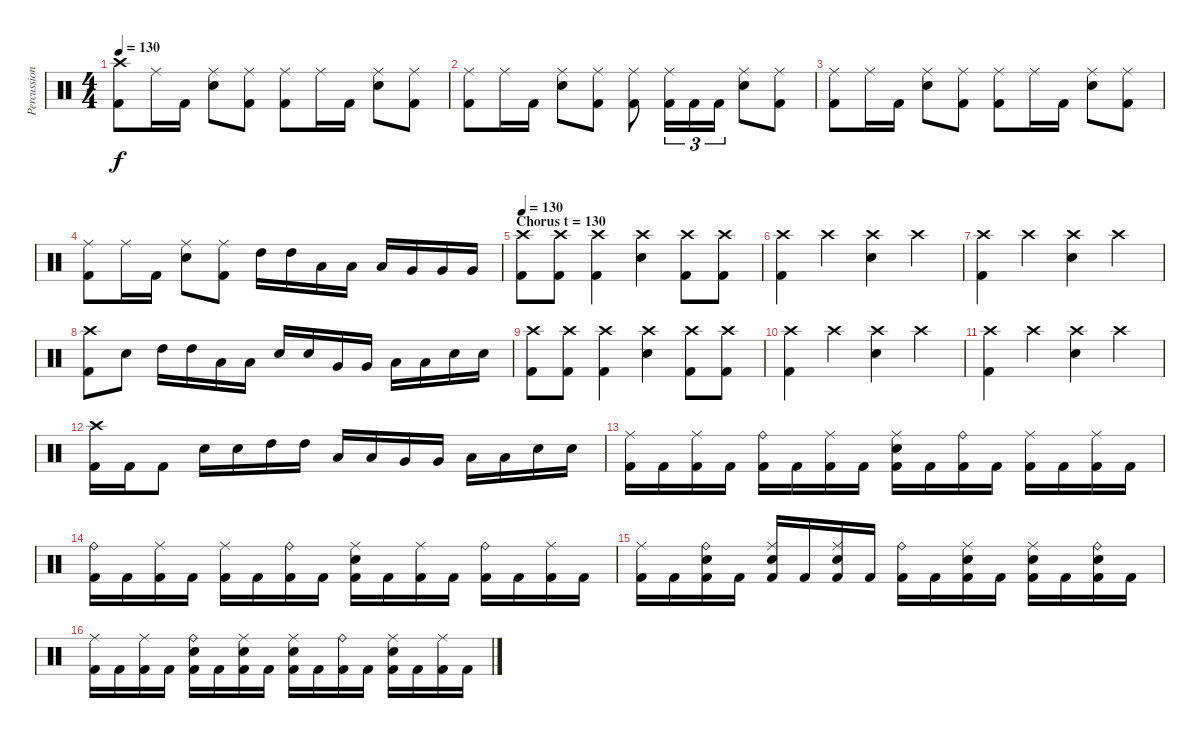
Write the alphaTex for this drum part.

\track ("Percussion" "Percussion") {instrument percussion}
\staff {score}
\articulation defaults
\ts (4 4)
\tempo 130
\clef neutral
\ks c
("Crash high (hit)" "Kick (hit) 2").8{dy f} "Ride (middle)".16 "Kick (hit) 2".16 ("Ride (middle)" "Electric Snare (hit)").8 ("Ride (middle)" "Kick (hit) 2").8 ("Ride (middle)" "Kick (hit) 2").8 "Ride (middle)".16 "Kick (hit) 2".16 ("Ride (middle)" "Electric Snare (hit)").8 ("Ride (middle)" "Kick (hit) 2").8 |
("Ride (middle)" "Kick (hit) 2").8 "Ride (middle)".16 "Kick (hit) 2".16 ("Ride (middle)" "Electric Snare (hit)").8 ("Ride (middle)" "Kick (hit) 2").8 ("Ride (middle)" "Kick (hit) 2").8 ("Ride (middle)" "Kick (hit) 2").16{tu (3 2)} "Kick (hit) 2".16{tu (3 2)} "Kick (hit) 2".16{tu (3 2)} ("Ride (middle)" "Electric Snare (hit)").8 ("Ride (middle)" "Kick (hit) 2").8 |
("Ride (middle)" "Kick (hit) 2").8 "Ride (middle)".16 "Kick (hit) 2".16 ("Ride (middle)" "Electric Snare (hit)").8 ("Ride (middle)" "Kick (hit) 2").8 ("Ride (middle)" "Kick (hit) 2").8 "Ride (middle)".16 "Kick (hit) 2".16 ("Ride (middle)" "Electric Snare (hit)").8 ("Ride (middle)" "Kick (hit) 2").8 |
("Ride (middle)" "Kick (hit) 2").8 "Ride (middle)".16 "Kick (hit) 2".16 ("Ride (middle)" "Electric Snare (hit)").8 ("Ride (middle)" "Kick (hit) 2").8 "High Tom (hit)".16 "High Tom (hit)".16 "Low Tom (hit)".16 "Low Tom (hit)".16 "Low Tom (hit)".16 "Very Low Tom (hit)".16 "Very Low Tom (hit)".16 "Very Low Tom (hit)".16 |
\section ("" "Chorus t = 130")
\tempo 130
("Crash high (hit)" "Kick (hit) 2").8 ("Crash high (hit)" "Kick (hit) 2").8 ("Crash high (hit)" "Kick (hit) 2").4 ("Crash high (hit)" "Electric Snare (hit)").4 ("Crash high (hit)" "Kick (hit) 2").8 ("Crash high (hit)" "Kick (hit) 2").8 |
("Crash high (hit)" "Kick (hit) 2").4 "Crash high (hit)".4 ("Crash high (hit)" "Electric Snare (hit)").4 "Crash high (hit)".4 |
("Crash high (hit)" "Kick (hit) 2").4 "Crash high (hit)".4 ("Crash high (hit)" "Electric Snare (hit)").4 "Crash high (hit)".4 |
("Crash high (hit)" "Kick (hit) 2").8 "Electric Snare (hit)".8 "High Tom (hit)".16 "High Tom (hit)".16 "Low Tom (hit)".16 "Low Tom (hit)".16 "Electric Snare (hit)".16 "Electric Snare (hit)".16 "Very Low Tom (hit)".16 "Very Low Tom (hit)".16 "Low Floor Tom (hit)".16 "Low Floor Tom (hit)".16 "Electric Snare (hit)".16 "Electric Snare (hit)".16 |
("Crash high (hit)" "Kick (hit) 2").8 ("Crash high (hit)" "Kick (hit) 2").8 ("Crash high (hit)" "Kick (hit) 2").4 ("Crash high (hit)" "Electric Snare (hit)").4 ("Crash high (hit)" "Kick (hit) 2").8 ("Crash high (hit)" "Kick (hit) 2").8 |
("Crash high (hit)" "Kick (hit) 2").4 "Crash high (hit)".4 ("Crash high (hit)" "Electric Snare (hit)").4 "Crash high (hit)".4 |
("Crash high (hit)" "Kick (hit) 2").4 "Crash high (hit)".4 ("Crash high (hit)" "Electric Snare (hit)").4 "Crash high (hit)".4 |
("Crash high (hit)" "Kick (hit) 2").16 "Kick (hit) 2".16 "Kick (hit) 2".8 "Electric Snare (hit)".16 "Electric Snare (hit)".16 "High Tom (hit)".16 "High Tom (hit)".16 "Low Tom (hit)".16 "Low Tom (hit)".16 "Very Low Tom (hit)".16 "Very Low Tom (hit)".16 "Low Floor Tom (hit)".16 "Low Floor Tom (hit)".16 "Electric Snare (hit)".16 "Electric Snare (hit)".16 |
("Ride (middle)" "Kick (hit) 2").16 "Kick (hit) 2".16 ("Ride (middle)" "Kick (hit) 2").16 "Kick (hit) 2".16 ("Ride (bell)" "Kick (hit) 2").16 "Kick (hit) 2".16 ("Ride (middle)" "Kick (hit) 2").16 "Kick (hit) 2".16 ("Ride (middle)" "Electric Snare (hit)" "Kick (hit) 2").16 "Kick (hit) 2".16 ("Ride (bell)" "Kick (hit) 2").16 "Kick (hit) 2".16 ("Ride (middle)" "Kick (hit) 2").16 "Kick (hit) 2".16 ("Ride (middle)" "Kick (hit) 2").16 "Kick (hit) 2".16 |
("Ride (bell)" "Kick (hit) 2").16 "Kick (hit) 2".16 ("Ride (middle)" "Kick (hit) 2").16 "Kick (hit) 2".16 ("Ride (middle)" "Kick (hit) 2").16 "Kick (hit) 2".16 ("Ride (bell)" "Kick (hit) 2").16 "Kick (hit) 2".16 ("Ride (middle)" "Electric Snare (hit)" "Kick (hit) 2").16 "Kick (hit) 2".16 ("Ride (middle)" "Kick (hit) 2").16 "Kick (hit) 2".16 ("Ride (bell)" "Kick (hit) 2").16 "Kick (hit) 2".16 ("Ride (middle)" "Kick (hit) 2").16 "Kick (hit) 2".16 |
("Ride (middle)" "Kick (hit) 2").16 "Kick (hit) 2".16 ("Ride (bell)" "Electric Snare (hit)" "Kick (hit) 2").16 "Kick (hit) 2".16 ("Ride (middle)" "Electric Snare (hit)" "Kick (hit) 2").16 "Kick (hit) 2".16 ("Ride (middle)" "Electric Snare (hit)" "Kick (hit) 2").16 "Kick (hit) 2".16 ("Ride (bell)" "Kick (hit) 2").16 "Kick (hit) 2".16 ("Ride (middle)" "Electric Snare (hit)" "Kick (hit) 2").16 "Kick (hit) 2".16 ("Ride (middle)" "Electric Snare (hit)" "Kick (hit) 2").16 "Kick (hit) 2".16 ("Ride (bell)" "Electric Snare (hit)" "Kick (hit) 2").16 "Kick (hit) 2".16 |
("Ride (middle)" "Kick (hit) 2").16 "Kick (hit) 2".16 ("Ride (middle)" "Kick (hit) 2").16 "Kick (hit) 2".16 ("Ride (bell)" "Electric Snare (hit)" "Kick (hit) 2").16 "Kick (hit) 2".16 ("Ride (middle)" "Electric Snare (hit)" "Kick (hit) 2").16 "Kick (hit) 2".16 ("Ride (middle)" "Electric Snare (hit)" "Kick (hit) 2").16 "Kick (hit) 2".16 ("Ride (bell)" "Kick (hit) 2").16 "Kick (hit) 2".16 ("Ride (middle)" "Electric Snare (hit)" "Kick (hit) 2").16 "Kick (hit) 2".16 ("Ride (middle)" "Kick (hit) 2").16 "Kick (hit) 2".16
